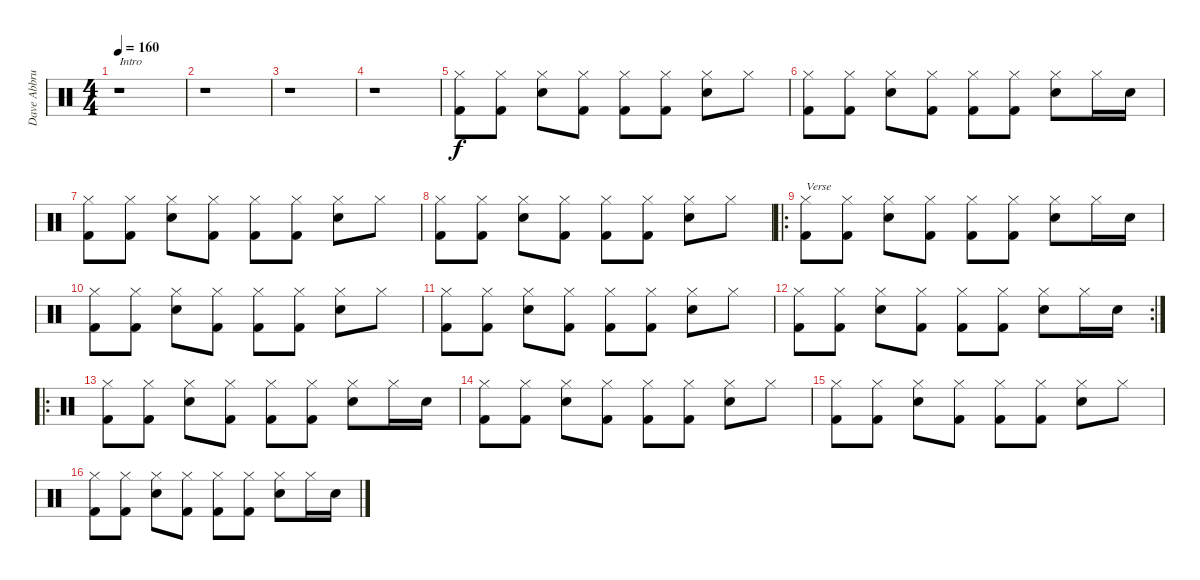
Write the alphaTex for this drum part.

\track ("Dave Abbruzzese" "Dave Abbru") {instrument percussion}
\staff {score}
\articulation defaults
\ts (4 4)
\tempo 160
\clef neutral
\ks c
r.1{txt "Intro" dy f} |
r.1 |
r.1 |
r.1 |
("Hi-Hat (closed)" "Kick (hit) 2").8 ("Hi-Hat (closed)" "Kick (hit) 2").8 ("Hi-Hat (closed)" "Snare (hit) 2").8 ("Hi-Hat (closed)" "Kick (hit) 2").8 ("Hi-Hat (closed)" "Kick (hit) 2").8 ("Hi-Hat (closed)" "Kick (hit) 2").8 ("Hi-Hat (closed)" "Snare (hit) 2").8 "Hi-Hat (closed)".8 |
("Hi-Hat (closed)" "Kick (hit) 2").8 ("Hi-Hat (closed)" "Kick (hit) 2").8 ("Hi-Hat (closed)" "Snare (hit) 2").8 ("Hi-Hat (closed)" "Kick (hit) 2").8 ("Hi-Hat (closed)" "Kick (hit) 2").8 ("Hi-Hat (closed)" "Kick (hit) 2").8 ("Hi-Hat (closed)" "Snare (hit) 2").8 "Hi-Hat (closed)".16 "Snare (hit) 2".16 |
("Hi-Hat (closed)" "Kick (hit) 2").8 ("Hi-Hat (closed)" "Kick (hit) 2").8 ("Hi-Hat (closed)" "Snare (hit) 2").8 ("Hi-Hat (closed)" "Kick (hit) 2").8 ("Hi-Hat (closed)" "Kick (hit) 2").8 ("Hi-Hat (closed)" "Kick (hit) 2").8 ("Hi-Hat (closed)" "Snare (hit) 2").8 "Hi-Hat (closed)".8 |
("Hi-Hat (closed)" "Kick (hit) 2").8 ("Hi-Hat (closed)" "Kick (hit) 2").8 ("Hi-Hat (closed)" "Snare (hit) 2").8 ("Hi-Hat (closed)" "Kick (hit) 2").8 ("Hi-Hat (closed)" "Kick (hit) 2").8 ("Hi-Hat (closed)" "Kick (hit) 2").8 ("Hi-Hat (closed)" "Snare (hit) 2").8 "Hi-Hat (closed)".8 |
\ro
("Hi-Hat (closed)" "Kick (hit) 2").8{txt "Verse"} ("Hi-Hat (closed)" "Kick (hit) 2").8 ("Hi-Hat (closed)" "Snare (hit) 2").8 ("Hi-Hat (closed)" "Kick (hit) 2").8 ("Hi-Hat (closed)" "Kick (hit) 2").8 ("Hi-Hat (closed)" "Kick (hit) 2").8 ("Hi-Hat (closed)" "Snare (hit) 2").8 "Hi-Hat (closed)".16 "Snare (hit) 2".16 |
("Hi-Hat (closed)" "Kick (hit) 2").8 ("Hi-Hat (closed)" "Kick (hit) 2").8 ("Hi-Hat (closed)" "Snare (hit) 2").8 ("Hi-Hat (closed)" "Kick (hit) 2").8 ("Hi-Hat (closed)" "Kick (hit) 2").8 ("Hi-Hat (closed)" "Kick (hit) 2").8 ("Hi-Hat (closed)" "Snare (hit) 2").8 "Hi-Hat (closed)".8 |
("Hi-Hat (closed)" "Kick (hit) 2").8 ("Hi-Hat (closed)" "Kick (hit) 2").8 ("Hi-Hat (closed)" "Snare (hit) 2").8 ("Hi-Hat (closed)" "Kick (hit) 2").8 ("Hi-Hat (closed)" "Kick (hit) 2").8 ("Hi-Hat (closed)" "Kick (hit) 2").8 ("Hi-Hat (closed)" "Snare (hit) 2").8 "Hi-Hat (closed)".8 |
\rc 2
("Hi-Hat (closed)" "Kick (hit) 2").8 ("Hi-Hat (closed)" "Kick (hit) 2").8 ("Hi-Hat (closed)" "Snare (hit) 2").8 ("Hi-Hat (closed)" "Kick (hit) 2").8 ("Hi-Hat (closed)" "Kick (hit) 2").8 ("Hi-Hat (closed)" "Kick (hit) 2").8 ("Hi-Hat (closed)" "Snare (hit) 2").8 "Hi-Hat (closed)".16 "Snare (hit) 2".16 |
\ro
("Hi-Hat (closed)" "Kick (hit) 2").8 ("Hi-Hat (closed)" "Kick (hit) 2").8 ("Hi-Hat (closed)" "Snare (hit) 2").8 ("Hi-Hat (closed)" "Kick (hit) 2").8 ("Hi-Hat (closed)" "Kick (hit) 2").8 ("Hi-Hat (closed)" "Kick (hit) 2").8 ("Hi-Hat (closed)" "Snare (hit) 2").8 "Hi-Hat (closed)".16 "Snare (hit) 2".16 |
("Hi-Hat (closed)" "Kick (hit) 2").8 ("Hi-Hat (closed)" "Kick (hit) 2").8 ("Hi-Hat (closed)" "Snare (hit) 2").8 ("Hi-Hat (closed)" "Kick (hit) 2").8 ("Hi-Hat (closed)" "Kick (hit) 2").8 ("Hi-Hat (closed)" "Kick (hit) 2").8 ("Hi-Hat (closed)" "Snare (hit) 2").8 "Hi-Hat (closed)".8 |
("Hi-Hat (closed)" "Kick (hit) 2").8 ("Hi-Hat (closed)" "Kick (hit) 2").8 ("Hi-Hat (closed)" "Snare (hit) 2").8 ("Hi-Hat (closed)" "Kick (hit) 2").8 ("Hi-Hat (closed)" "Kick (hit) 2").8 ("Hi-Hat (closed)" "Kick (hit) 2").8 ("Hi-Hat (closed)" "Snare (hit) 2").8 "Hi-Hat (closed)".8 |
("Hi-Hat (closed)" "Kick (hit) 2").8 ("Hi-Hat (closed)" "Kick (hit) 2").8 ("Hi-Hat (closed)" "Snare (hit) 2").8 ("Hi-Hat (closed)" "Kick (hit) 2").8 ("Hi-Hat (closed)" "Kick (hit) 2").8 ("Hi-Hat (closed)" "Kick (hit) 2").8 ("Hi-Hat (closed)" "Snare (hit) 2").8 "Hi-Hat (closed)".16 "Snare (hit) 2".16
